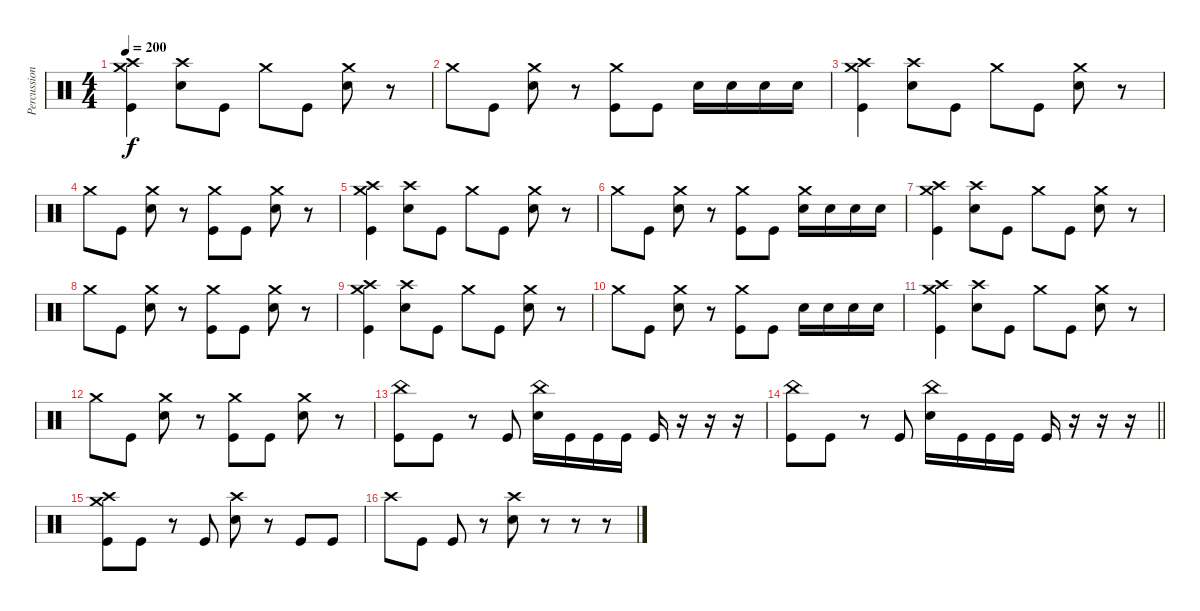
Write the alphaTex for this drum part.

\track ("Percussion" "Percussion") {instrument percussion}
\staff {score}
\articulation defaults
\ts (4 4)
\tempo 200
\clef neutral
\ks c
("Kick (hit)" "Crash medium (hit)" "Crash high (hit)").4{dy f} ("Snare (hit) 2" "Crash high (hit)").8 "Kick (hit)".8 "Crash medium (hit)".8 "Kick (hit)".8 ("Crash medium (hit)" "Snare (hit) 2").8 r.8 |
"Crash medium (hit)".8 "Kick (hit)".8 ("Crash medium (hit)" "Snare (hit) 2").8 r.8 ("Kick (hit)" "Crash medium (hit)").8 "Kick (hit)".8 "Snare (hit) 2".16 "Snare (hit) 2".16 "Snare (hit) 2".16 "Snare (hit) 2".16 |
("Kick (hit)" "Crash medium (hit)" "Crash high (hit)").4 ("Snare (hit) 2" "Crash high (hit)").8 "Kick (hit)".8 "Crash medium (hit)".8 "Kick (hit)".8 ("Crash medium (hit)" "Snare (hit) 2").8 r.8 |
"Crash medium (hit)".8 "Kick (hit)".8 ("Crash medium (hit)" "Snare (hit) 2").8 r.8 ("Kick (hit)" "Crash medium (hit)").8 "Kick (hit)".8 ("Snare (hit) 2" "Crash medium (hit)").8 r.8 |
("Kick (hit)" "Crash medium (hit)" "Crash high (hit)").4 ("Snare (hit) 2" "Crash high (hit)").8 "Kick (hit)".8 "Crash medium (hit)".8 "Kick (hit)".8 ("Crash medium (hit)" "Snare (hit) 2").8 r.8 |
"Crash medium (hit)".8 "Kick (hit)".8 ("Crash medium (hit)" "Snare (hit) 2").8 r.8 ("Kick (hit)" "Crash medium (hit)").8 "Kick (hit)".8 ("Snare (hit) 2" "Crash medium (hit)").16 "Snare (hit) 2".16 "Snare (hit) 2".16 "Snare (hit) 2".16 |
("Kick (hit)" "Crash medium (hit)" "Crash high (hit)").4 ("Snare (hit) 2" "Crash high (hit)").8 "Kick (hit)".8 "Crash medium (hit)".8 "Kick (hit)".8 ("Crash medium (hit)" "Snare (hit) 2").8 r.8 |
"Crash medium (hit)".8 "Kick (hit)".8 ("Crash medium (hit)" "Snare (hit) 2").8 r.8 ("Kick (hit)" "Crash medium (hit)").8 "Kick (hit)".8 ("Snare (hit) 2" "Crash medium (hit)").8 r.8 |
("Kick (hit)" "Crash medium (hit)" "Crash high (hit)").4 ("Snare (hit) 2" "Crash high (hit)").8 "Kick (hit)".8 "Crash medium (hit)".8 "Kick (hit)".8 ("Crash medium (hit)" "Snare (hit) 2").8 r.8 |
"Crash medium (hit)".8 "Kick (hit)".8 ("Crash medium (hit)" "Snare (hit) 2").8 r.8 ("Kick (hit)" "Crash medium (hit)").8 "Kick (hit)".8 "Snare (hit) 2".16 "Snare (hit) 2".16 "Snare (hit) 2".16 "Snare (hit) 2".16 |
("Kick (hit)" "Crash medium (hit)" "Crash high (hit)").4 ("Snare (hit) 2" "Crash high (hit)").8 "Kick (hit)".8 "Crash medium (hit)".8 "Kick (hit)".8 ("Crash medium (hit)" "Snare (hit) 2").8 r.8 |
"Crash medium (hit)".8 "Kick (hit)".8 ("Crash medium (hit)" "Snare (hit) 2").8 r.8 ("Kick (hit)" "Crash medium (hit)").8 "Kick (hit)".8 ("Snare (hit) 2" "Crash medium (hit)").8 r.8 |
("China (hit)" "Kick (hit)").8 "Kick (hit)".8 r.8 "Kick (hit)".8 ("Snare (hit) 2" "China (hit)").16 "Kick (hit)".16 "Kick (hit)".16 "Kick (hit)".16 "Kick (hit)".16 r.16 r.16 r.16 |
\barLineRight lightlight
("China (hit)" "Kick (hit)").8 "Kick (hit)".8 r.8 "Kick (hit)".8 ("Snare (hit) 2" "China (hit)").16 "Kick (hit)".16 "Kick (hit)".16 "Kick (hit)".16 "Kick (hit)".16 r.16 r.16 r.16 |
("Crash high (hit)" "Crash medium (hit)" "Kick (hit)").8 "Kick (hit)".8 r.8 "Kick (hit)".8 ("Crash high (hit)" "Snare (hit) 2").8 r.8 "Kick (hit)".8 "Kick (hit)".8 |
"Crash high (hit)".8 "Kick (hit)".8 "Kick (hit)".8 r.8 ("Crash high (hit)" "Snare (hit) 2").8 r.8 r.8 r.8
